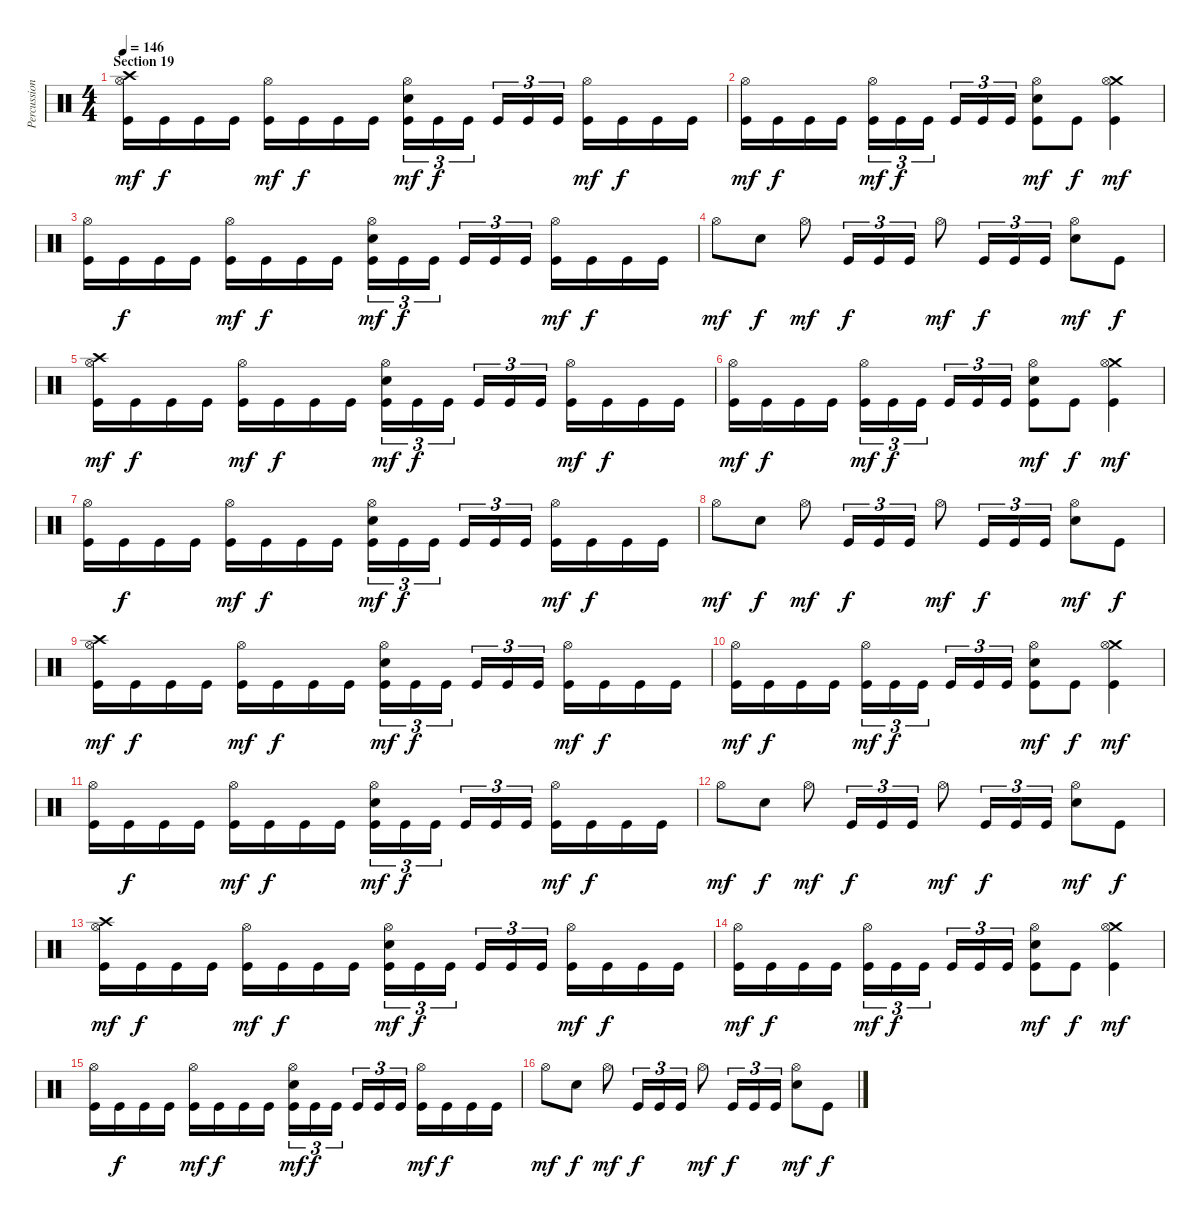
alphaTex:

\track ("Percussion" "Percussion") {instrument percussion}
\staff {score}
\articulation defaults
\ts (4 4)
\section ("" "Section 19")
\tempo 146
\clef neutral
\ks c
("Crash high (hit)" "Hi-Hat (open)" "Kick (hit)").16{dy mf} "Kick (hit)".16{dy f} "Kick (hit)".16 "Kick (hit)".16 ("Hi-Hat (open)" "Kick (hit)").16{dy mf} "Kick (hit)".16{dy f} "Kick (hit)".16 "Kick (hit)".16 ("Hi-Hat (open)" "Electric Snare (hit)" "Kick (hit)").16{tu (3 2) dy mf} "Kick (hit)".16{tu (3 2) dy f} "Kick (hit)".16{tu (3 2) beam splitsecondary} "Kick (hit)".16{tu (3 2)} "Kick (hit)".16{tu (3 2)} "Kick (hit)".16{tu (3 2)} ("Hi-Hat (open)" "Kick (hit)").16{dy mf} "Kick (hit)".16{dy f} "Kick (hit)".16 "Kick (hit)".16 |
("Hi-Hat (open)" "Kick (hit)").16{dy mf} "Kick (hit)".16{dy f} "Kick (hit)".16 "Kick (hit)".16 ("Hi-Hat (open)" "Kick (hit)").16{tu (3 2) dy mf} "Kick (hit)".16{tu (3 2) dy f} "Kick (hit)".16{tu (3 2) beam splitsecondary} "Kick (hit)".16{tu (3 2)} "Kick (hit)".16{tu (3 2)} "Kick (hit)".16{tu (3 2)} ("Hi-Hat (open)" "Electric Snare (hit)" "Kick (hit)").8{dy mf} "Kick (hit)".8{dy f} ("Crash medium (hit)" "Hi-Hat (open)" "Kick (hit)").4{dy mf} |
("Hi-Hat (open)" "Kick (hit)").16 "Kick (hit)".16{dy f} "Kick (hit)".16 "Kick (hit)".16 ("Hi-Hat (open)" "Kick (hit)").16{dy mf} "Kick (hit)".16{dy f} "Kick (hit)".16 "Kick (hit)".16 ("Hi-Hat (open)" "Electric Snare (hit)" "Kick (hit)").16{tu (3 2) dy mf} "Kick (hit)".16{tu (3 2) dy f} "Kick (hit)".16{tu (3 2) beam splitsecondary} "Kick (hit)".16{tu (3 2)} "Kick (hit)".16{tu (3 2)} "Kick (hit)".16{tu (3 2)} ("Hi-Hat (open)" "Kick (hit)").16{dy mf} "Kick (hit)".16{dy f} "Kick (hit)".16 "Kick (hit)".16 |
"Hi-Hat (open)".8{dy mf} "Electric Snare (hit)".8{dy f} "Hi-Hat (open)".8{dy mf} "Kick (hit)".16{tu (3 2) dy f} "Kick (hit)".16{tu (3 2)} "Kick (hit)".16{tu (3 2)} "Hi-Hat (open)".8{dy mf} "Kick (hit)".16{tu (3 2) dy f} "Kick (hit)".16{tu (3 2)} "Kick (hit)".16{tu (3 2)} ("Hi-Hat (open)" "Electric Snare (hit)").8{dy mf} "Kick (hit)".8{dy f} |
("Crash high (hit)" "Hi-Hat (open)" "Kick (hit)").16{dy mf} "Kick (hit)".16{dy f} "Kick (hit)".16 "Kick (hit)".16 ("Hi-Hat (open)" "Kick (hit)").16{dy mf} "Kick (hit)".16{dy f} "Kick (hit)".16 "Kick (hit)".16 ("Hi-Hat (open)" "Electric Snare (hit)" "Kick (hit)").16{tu (3 2) dy mf} "Kick (hit)".16{tu (3 2) dy f} "Kick (hit)".16{tu (3 2) beam splitsecondary} "Kick (hit)".16{tu (3 2)} "Kick (hit)".16{tu (3 2)} "Kick (hit)".16{tu (3 2)} ("Hi-Hat (open)" "Kick (hit)").16{dy mf} "Kick (hit)".16{dy f} "Kick (hit)".16 "Kick (hit)".16 |
("Hi-Hat (open)" "Kick (hit)").16{dy mf} "Kick (hit)".16{dy f} "Kick (hit)".16 "Kick (hit)".16 ("Hi-Hat (open)" "Kick (hit)").16{tu (3 2) dy mf} "Kick (hit)".16{tu (3 2) dy f} "Kick (hit)".16{tu (3 2) beam splitsecondary} "Kick (hit)".16{tu (3 2)} "Kick (hit)".16{tu (3 2)} "Kick (hit)".16{tu (3 2)} ("Hi-Hat (open)" "Electric Snare (hit)" "Kick (hit)").8{dy mf} "Kick (hit)".8{dy f} ("Crash medium (hit)" "Hi-Hat (open)" "Kick (hit)").4{dy mf} |
("Hi-Hat (open)" "Kick (hit)").16 "Kick (hit)".16{dy f} "Kick (hit)".16 "Kick (hit)".16 ("Hi-Hat (open)" "Kick (hit)").16{dy mf} "Kick (hit)".16{dy f} "Kick (hit)".16 "Kick (hit)".16 ("Hi-Hat (open)" "Electric Snare (hit)" "Kick (hit)").16{tu (3 2) dy mf} "Kick (hit)".16{tu (3 2) dy f} "Kick (hit)".16{tu (3 2) beam splitsecondary} "Kick (hit)".16{tu (3 2)} "Kick (hit)".16{tu (3 2)} "Kick (hit)".16{tu (3 2)} ("Hi-Hat (open)" "Kick (hit)").16{dy mf} "Kick (hit)".16{dy f} "Kick (hit)".16 "Kick (hit)".16 |
"Hi-Hat (open)".8{dy mf} "Electric Snare (hit)".8{dy f} "Hi-Hat (open)".8{dy mf} "Kick (hit)".16{tu (3 2) dy f} "Kick (hit)".16{tu (3 2)} "Kick (hit)".16{tu (3 2)} "Hi-Hat (open)".8{dy mf} "Kick (hit)".16{tu (3 2) dy f} "Kick (hit)".16{tu (3 2)} "Kick (hit)".16{tu (3 2)} ("Hi-Hat (open)" "Electric Snare (hit)").8{dy mf} "Kick (hit)".8{dy f} |
("Crash high (hit)" "Hi-Hat (open)" "Kick (hit)").16{dy mf} "Kick (hit)".16{dy f} "Kick (hit)".16 "Kick (hit)".16 ("Hi-Hat (open)" "Kick (hit)").16{dy mf} "Kick (hit)".16{dy f} "Kick (hit)".16 "Kick (hit)".16 ("Hi-Hat (open)" "Electric Snare (hit)" "Kick (hit)").16{tu (3 2) dy mf} "Kick (hit)".16{tu (3 2) dy f} "Kick (hit)".16{tu (3 2) beam splitsecondary} "Kick (hit)".16{tu (3 2)} "Kick (hit)".16{tu (3 2)} "Kick (hit)".16{tu (3 2)} ("Hi-Hat (open)" "Kick (hit)").16{dy mf} "Kick (hit)".16{dy f} "Kick (hit)".16 "Kick (hit)".16 |
("Hi-Hat (open)" "Kick (hit)").16{dy mf} "Kick (hit)".16{dy f} "Kick (hit)".16 "Kick (hit)".16 ("Hi-Hat (open)" "Kick (hit)").16{tu (3 2) dy mf} "Kick (hit)".16{tu (3 2) dy f} "Kick (hit)".16{tu (3 2) beam splitsecondary} "Kick (hit)".16{tu (3 2)} "Kick (hit)".16{tu (3 2)} "Kick (hit)".16{tu (3 2)} ("Hi-Hat (open)" "Electric Snare (hit)" "Kick (hit)").8{dy mf} "Kick (hit)".8{dy f} ("Crash medium (hit)" "Hi-Hat (open)" "Kick (hit)").4{dy mf} |
("Hi-Hat (open)" "Kick (hit)").16 "Kick (hit)".16{dy f} "Kick (hit)".16 "Kick (hit)".16 ("Hi-Hat (open)" "Kick (hit)").16{dy mf} "Kick (hit)".16{dy f} "Kick (hit)".16 "Kick (hit)".16 ("Hi-Hat (open)" "Electric Snare (hit)" "Kick (hit)").16{tu (3 2) dy mf} "Kick (hit)".16{tu (3 2) dy f} "Kick (hit)".16{tu (3 2) beam splitsecondary} "Kick (hit)".16{tu (3 2)} "Kick (hit)".16{tu (3 2)} "Kick (hit)".16{tu (3 2)} ("Hi-Hat (open)" "Kick (hit)").16{dy mf} "Kick (hit)".16{dy f} "Kick (hit)".16 "Kick (hit)".16 |
"Hi-Hat (open)".8{dy mf} "Electric Snare (hit)".8{dy f} "Hi-Hat (open)".8{dy mf} "Kick (hit)".16{tu (3 2) dy f} "Kick (hit)".16{tu (3 2)} "Kick (hit)".16{tu (3 2)} "Hi-Hat (open)".8{dy mf} "Kick (hit)".16{tu (3 2) dy f} "Kick (hit)".16{tu (3 2)} "Kick (hit)".16{tu (3 2)} ("Hi-Hat (open)" "Electric Snare (hit)").8{dy mf} "Kick (hit)".8{dy f} |
("Crash high (hit)" "Hi-Hat (open)" "Kick (hit)").16{dy mf} "Kick (hit)".16{dy f} "Kick (hit)".16 "Kick (hit)".16 ("Hi-Hat (open)" "Kick (hit)").16{dy mf} "Kick (hit)".16{dy f} "Kick (hit)".16 "Kick (hit)".16 ("Hi-Hat (open)" "Electric Snare (hit)" "Kick (hit)").16{tu (3 2) dy mf} "Kick (hit)".16{tu (3 2) dy f} "Kick (hit)".16{tu (3 2) beam splitsecondary} "Kick (hit)".16{tu (3 2)} "Kick (hit)".16{tu (3 2)} "Kick (hit)".16{tu (3 2)} ("Hi-Hat (open)" "Kick (hit)").16{dy mf} "Kick (hit)".16{dy f} "Kick (hit)".16 "Kick (hit)".16 |
("Hi-Hat (open)" "Kick (hit)").16{dy mf} "Kick (hit)".16{dy f} "Kick (hit)".16 "Kick (hit)".16 ("Hi-Hat (open)" "Kick (hit)").16{tu (3 2) dy mf} "Kick (hit)".16{tu (3 2) dy f} "Kick (hit)".16{tu (3 2) beam splitsecondary} "Kick (hit)".16{tu (3 2)} "Kick (hit)".16{tu (3 2)} "Kick (hit)".16{tu (3 2)} ("Hi-Hat (open)" "Electric Snare (hit)" "Kick (hit)").8{dy mf} "Kick (hit)".8{dy f} ("Crash medium (hit)" "Hi-Hat (open)" "Kick (hit)").4{dy mf} |
("Hi-Hat (open)" "Kick (hit)").16 "Kick (hit)".16{dy f} "Kick (hit)".16 "Kick (hit)".16 ("Hi-Hat (open)" "Kick (hit)").16{dy mf} "Kick (hit)".16{dy f} "Kick (hit)".16 "Kick (hit)".16 ("Hi-Hat (open)" "Electric Snare (hit)" "Kick (hit)").16{tu (3 2) dy mf} "Kick (hit)".16{tu (3 2) dy f} "Kick (hit)".16{tu (3 2) beam splitsecondary} "Kick (hit)".16{tu (3 2)} "Kick (hit)".16{tu (3 2)} "Kick (hit)".16{tu (3 2)} ("Hi-Hat (open)" "Kick (hit)").16{dy mf} "Kick (hit)".16{dy f} "Kick (hit)".16 "Kick (hit)".16 |
"Hi-Hat (open)".8{dy mf} "Electric Snare (hit)".8{dy f} "Hi-Hat (open)".8{dy mf} "Kick (hit)".16{tu (3 2) dy f} "Kick (hit)".16{tu (3 2)} "Kick (hit)".16{tu (3 2)} "Hi-Hat (open)".8{dy mf} "Kick (hit)".16{tu (3 2) dy f} "Kick (hit)".16{tu (3 2)} "Kick (hit)".16{tu (3 2)} ("Hi-Hat (open)" "Electric Snare (hit)").8{dy mf} "Kick (hit)".8{dy f}
